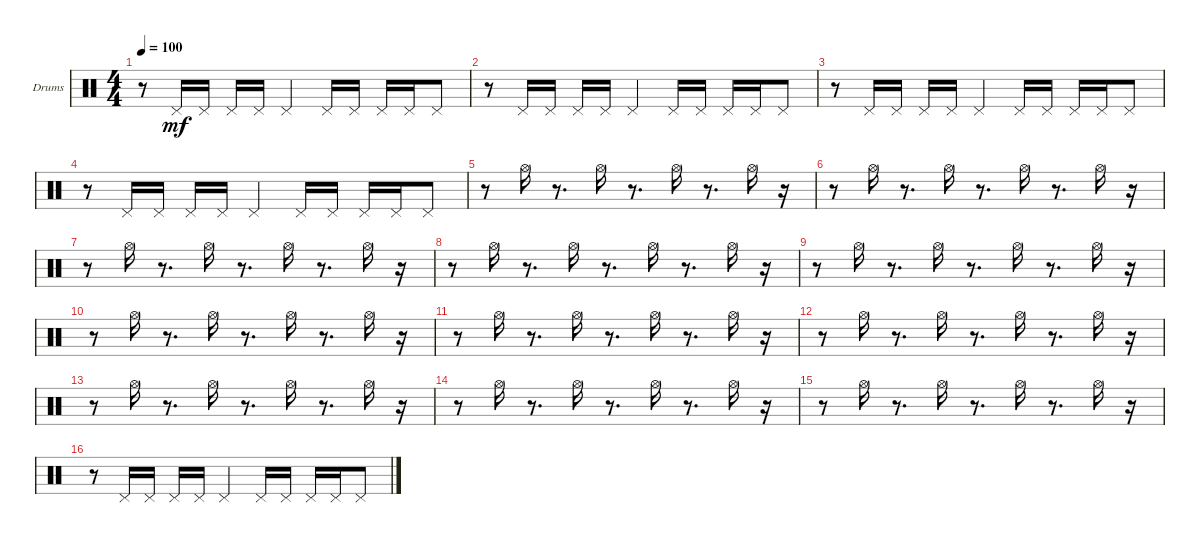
\bracketExtendMode groupsimilarinstruments
\firstSystemTrackNameOrientation horizontal
\otherSystemsTrackNameOrientation horizontal
\track ("Treble Percussion" "Drums") {instrument percussion}
\staff {score}
\articulation defaults
\ts (4 4)
\tempo 100
\clef neutral
\ks c
r.8{dy mf} "Pedal Hi-Hat (hit)".16 "Pedal Hi-Hat (hit)".16 "Pedal Hi-Hat (hit)".16 "Pedal Hi-Hat (hit)".16 "Pedal Hi-Hat (hit)".4 "Pedal Hi-Hat (hit)".16 "Pedal Hi-Hat (hit)".16 "Pedal Hi-Hat (hit)".16 "Pedal Hi-Hat (hit)".16 "Pedal Hi-Hat (hit)".8 |
r.8 "Pedal Hi-Hat (hit)".16 "Pedal Hi-Hat (hit)".16 "Pedal Hi-Hat (hit)".16 "Pedal Hi-Hat (hit)".16 "Pedal Hi-Hat (hit)".4 "Pedal Hi-Hat (hit)".16 "Pedal Hi-Hat (hit)".16 "Pedal Hi-Hat (hit)".16 "Pedal Hi-Hat (hit)".16 "Pedal Hi-Hat (hit)".8 |
r.8 "Pedal Hi-Hat (hit)".16 "Pedal Hi-Hat (hit)".16 "Pedal Hi-Hat (hit)".16 "Pedal Hi-Hat (hit)".16 "Pedal Hi-Hat (hit)".4 "Pedal Hi-Hat (hit)".16 "Pedal Hi-Hat (hit)".16 "Pedal Hi-Hat (hit)".16 "Pedal Hi-Hat (hit)".16 "Pedal Hi-Hat (hit)".8 |
r.8 "Pedal Hi-Hat (hit)".16 "Pedal Hi-Hat (hit)".16 "Pedal Hi-Hat (hit)".16 "Pedal Hi-Hat (hit)".16 "Pedal Hi-Hat (hit)".4 "Pedal Hi-Hat (hit)".16 "Pedal Hi-Hat (hit)".16 "Pedal Hi-Hat (hit)".16 "Pedal Hi-Hat (hit)".16 "Pedal Hi-Hat (hit)".8 |
r.8 "Hi-Hat (open)".16 r.8{d} "Hi-Hat (open)".16 r.8{d} "Hi-Hat (open)".16 r.8{d} "Hi-Hat (open)".16 r.16 |
r.8 "Hi-Hat (open)".16 r.8{d} "Hi-Hat (open)".16 r.8{d} "Hi-Hat (open)".16 r.8{d} "Hi-Hat (open)".16 r.16 |
r.8 "Hi-Hat (open)".16 r.8{d} "Hi-Hat (open)".16 r.8{d} "Hi-Hat (open)".16 r.8{d} "Hi-Hat (open)".16 r.16 |
r.8 "Hi-Hat (open)".16 r.8{d} "Hi-Hat (open)".16 r.8{d} "Hi-Hat (open)".16 r.8{d} "Hi-Hat (open)".16 r.16 |
r.8 "Hi-Hat (open)".16 r.8{d} "Hi-Hat (open)".16 r.8{d} "Hi-Hat (open)".16 r.8{d} "Hi-Hat (open)".16 r.16 |
r.8 "Hi-Hat (open)".16 r.8{d} "Hi-Hat (open)".16 r.8{d} "Hi-Hat (open)".16 r.8{d} "Hi-Hat (open)".16 r.16 |
r.8 "Hi-Hat (open)".16 r.8{d} "Hi-Hat (open)".16 r.8{d} "Hi-Hat (open)".16 r.8{d} "Hi-Hat (open)".16 r.16 |
r.8 "Hi-Hat (open)".16 r.8{d} "Hi-Hat (open)".16 r.8{d} "Hi-Hat (open)".16 r.8{d} "Hi-Hat (open)".16 r.16 |
r.8 "Hi-Hat (open)".16 r.8{d} "Hi-Hat (open)".16 r.8{d} "Hi-Hat (open)".16 r.8{d} "Hi-Hat (open)".16 r.16 |
r.8 "Hi-Hat (open)".16 r.8{d} "Hi-Hat (open)".16 r.8{d} "Hi-Hat (open)".16 r.8{d} "Hi-Hat (open)".16 r.16 |
r.8 "Hi-Hat (open)".16 r.8{d} "Hi-Hat (open)".16 r.8{d} "Hi-Hat (open)".16 r.8{d} "Hi-Hat (open)".16 r.16 |
r.8 "Pedal Hi-Hat (hit)".16 "Pedal Hi-Hat (hit)".16 "Pedal Hi-Hat (hit)".16 "Pedal Hi-Hat (hit)".16 "Pedal Hi-Hat (hit)".4 "Pedal Hi-Hat (hit)".16 "Pedal Hi-Hat (hit)".16 "Pedal Hi-Hat (hit)".16 "Pedal Hi-Hat (hit)".16 "Pedal Hi-Hat (hit)".8
